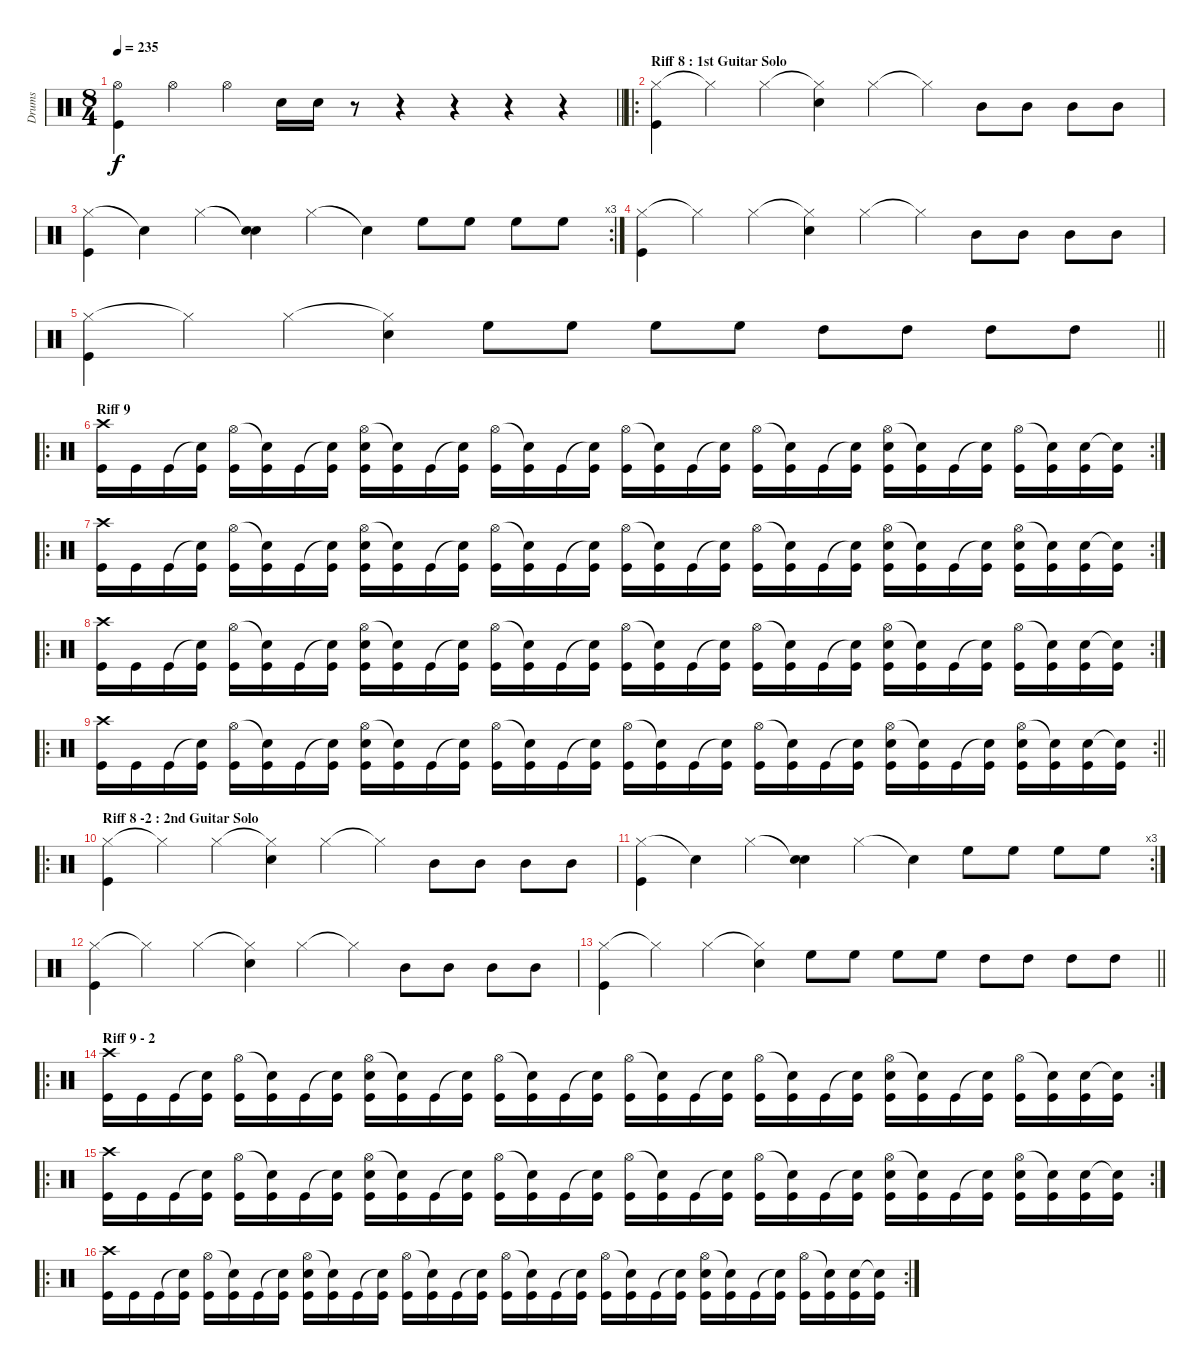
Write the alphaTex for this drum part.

\track ("Drums" "Drums") {instrument percussion}
\staff {score}
\articulation defaults
\ts (8 4)
\tempo 235
\clef neutral
\barLineRight lightlight
\ks c
("Hi-Hat (open)" "Kick (hit)").4{dy f} "Hi-Hat (open)".4 "Hi-Hat (open)".4 "Electric Snare (hit)".16 "Electric Snare (hit)".16 r.8 r.4 r.4 r.4 r.4 |
\ro
\section ("" "Riff 8 : 1st Guitar Solo")
("Hi-Hat (closed)" "Kick (hit)").4 "Hi-Hat (closed)"{t}.4 "Hi-Hat (closed)".4 ("Hi-Hat (closed)"{t} "Electric Snare (hit)").4 "Hi-Hat (closed)".4 "Hi-Hat (closed)"{t}.4 "Mid Tom (hit)".8 "Mid Tom (hit)".8 "Mid Tom (hit)".8 "Mid Tom (hit)".8 |
\rc 3
("Hi-Hat (closed)" "Kick (hit)").4 "Snare (hit)"{t}.4 "Hi-Hat (closed)".4 ("Snare (hit)"{t} "Electric Snare (hit)").4 "Hi-Hat (closed)".4 "Snare (hit)"{t}.4 "High Floor Tom (hit)".8 "High Floor Tom (hit)".8 "High Floor Tom (hit)".8 "High Floor Tom (hit)".8 |
("Hi-Hat (closed)" "Kick (hit)").4 "Hi-Hat (closed)"{t}.4 "Hi-Hat (closed)".4 ("Hi-Hat (closed)"{t} "Electric Snare (hit)").4 "Hi-Hat (closed)".4 "Hi-Hat (closed)"{t}.4 "Mid Tom (hit)".8 "Mid Tom (hit)".8 "Mid Tom (hit)".8 "Mid Tom (hit)".8 |
\barLineRight lightlight
("Hi-Hat (closed)" "Kick (hit)").4 "Hi-Hat (closed)"{t}.4 "Hi-Hat (closed)".4 ("Hi-Hat (closed)"{t} "Electric Snare (hit)").4 "High Floor Tom (hit)".8 "High Floor Tom (hit)".8 "High Floor Tom (hit)".8 "High Floor Tom (hit)".8 "High Tom (hit)".8 "High Tom (hit)".8 "High Tom (hit)".8 "High Tom (hit)".8 |
\ro
\rc 2
\section ("" "Riff 9 ")
("Crash high (hit)" "Kick (hit)").16 "Kick (hit)".16 "Kick (hit)".16 ("Snare (hit)"{t} "Kick (hit)").16 ("Hi-Hat (open)" "Kick (hit)").16 ("Snare (hit)"{t} "Kick (hit)").16 "Kick (hit)".16 ("Snare (hit)"{t} "Kick (hit)").16 ("Hi-Hat (open)" "Electric Snare (hit)" "Kick (hit)").16 ("Snare (hit)"{t} "Kick (hit)").16 "Kick (hit)".16 ("Snare (hit)"{t} "Kick (hit)").16 ("Hi-Hat (open)" "Kick (hit)").16 ("Snare (hit)"{t} "Kick (hit)").16 "Kick (hit)".16 ("Snare (hit)"{t} "Kick (hit)").16 ("Hi-Hat (open)" "Kick (hit)").16 ("Snare (hit)"{t} "Kick (hit)").16 "Kick (hit)".16 ("Snare (hit)"{t} "Kick (hit)").16 ("Hi-Hat (open)" "Kick (hit)").16 ("Snare (hit)"{t} "Kick (hit)").16 "Kick (hit)".16 ("Snare (hit)"{t} "Kick (hit)").16 ("Hi-Hat (open)" "Electric Snare (hit)" "Kick (hit)").16 ("Snare (hit)"{t} "Kick (hit)").16 "Kick (hit)".16 ("Snare (hit)"{t} "Kick (hit)").16 ("Hi-Hat (open)" "Kick (hit)").16 ("Snare (hit)"{t} "Kick (hit)").16 ("Electric Snare (hit)" "Kick (hit)").16 ("Snare (hit)"{t} "Kick (hit)").16 |
\ro
\rc 2
("Crash high (hit)" "Kick (hit)").16 "Kick (hit)".16 "Kick (hit)".16 ("Snare (hit)"{t} "Kick (hit)").16 ("Hi-Hat (open)" "Kick (hit)").16 ("Snare (hit)"{t} "Kick (hit)").16 "Kick (hit)".16 ("Snare (hit)"{t} "Kick (hit)").16 ("Hi-Hat (open)" "Electric Snare (hit)" "Kick (hit)").16 ("Snare (hit)"{t} "Kick (hit)").16 "Kick (hit)".16 ("Snare (hit)"{t} "Kick (hit)").16 ("Hi-Hat (open)" "Kick (hit)").16 ("Snare (hit)"{t} "Kick (hit)").16 "Kick (hit)".16 ("Snare (hit)"{t} "Kick (hit)").16 ("Hi-Hat (open)" "Kick (hit)").16 ("Snare (hit)"{t} "Kick (hit)").16 "Kick (hit)".16 ("Snare (hit)"{t} "Kick (hit)").16 ("Hi-Hat (open)" "Kick (hit)").16 ("Snare (hit)"{t} "Kick (hit)").16 "Kick (hit)".16 ("Snare (hit)"{t} "Kick (hit)").16 ("Hi-Hat (open)" "Electric Snare (hit)" "Kick (hit)").16 ("Snare (hit)"{t} "Kick (hit)").16 "Kick (hit)".16 ("Snare (hit)"{t} "Kick (hit)").16 ("Hi-Hat (open)" "Electric Snare (hit)" "Kick (hit)").16 ("Snare (hit)"{t} "Kick (hit)").16 ("Electric Snare (hit)" "Kick (hit)").16 ("Snare (hit)"{t} "Kick (hit)").16 |
\ro
\rc 2
("Crash high (hit)" "Kick (hit)").16 "Kick (hit)".16 "Kick (hit)".16 ("Snare (hit)"{t} "Kick (hit)").16 ("Hi-Hat (open)" "Kick (hit)").16 ("Snare (hit)"{t} "Kick (hit)").16 "Kick (hit)".16 ("Snare (hit)"{t} "Kick (hit)").16 ("Hi-Hat (open)" "Electric Snare (hit)" "Kick (hit)").16 ("Snare (hit)"{t} "Kick (hit)").16 "Kick (hit)".16 ("Snare (hit)"{t} "Kick (hit)").16 ("Hi-Hat (open)" "Kick (hit)").16 ("Snare (hit)"{t} "Kick (hit)").16 "Kick (hit)".16 ("Snare (hit)"{t} "Kick (hit)").16 ("Hi-Hat (open)" "Kick (hit)").16 ("Snare (hit)"{t} "Kick (hit)").16 "Kick (hit)".16 ("Snare (hit)"{t} "Kick (hit)").16 ("Hi-Hat (open)" "Kick (hit)").16 ("Snare (hit)"{t} "Kick (hit)").16 "Kick (hit)".16 ("Snare (hit)"{t} "Kick (hit)").16 ("Hi-Hat (open)" "Electric Snare (hit)" "Kick (hit)").16 ("Snare (hit)"{t} "Kick (hit)").16 "Kick (hit)".16 ("Snare (hit)"{t} "Kick (hit)").16 ("Hi-Hat (open)" "Kick (hit)").16 ("Snare (hit)"{t} "Kick (hit)").16 ("Electric Snare (hit)" "Kick (hit)").16 ("Snare (hit)"{t} "Kick (hit)").16 |
\ro
\rc 2
\barLineRight lightlight
("Crash high (hit)" "Kick (hit)").16 "Kick (hit)".16 "Kick (hit)".16 ("Snare (hit)"{t} "Kick (hit)").16 ("Hi-Hat (open)" "Kick (hit)").16 ("Snare (hit)"{t} "Kick (hit)").16 "Kick (hit)".16 ("Snare (hit)"{t} "Kick (hit)").16 ("Hi-Hat (open)" "Electric Snare (hit)" "Kick (hit)").16 ("Snare (hit)"{t} "Kick (hit)").16 "Kick (hit)".16 ("Snare (hit)"{t} "Kick (hit)").16 ("Hi-Hat (open)" "Kick (hit)").16 ("Snare (hit)"{t} "Kick (hit)").16 "Kick (hit)".16 ("Snare (hit)"{t} "Kick (hit)").16 ("Hi-Hat (open)" "Kick (hit)").16 ("Snare (hit)"{t} "Kick (hit)").16 "Kick (hit)".16 ("Snare (hit)"{t} "Kick (hit)").16 ("Hi-Hat (open)" "Kick (hit)").16 ("Snare (hit)"{t} "Kick (hit)").16 "Kick (hit)".16 ("Snare (hit)"{t} "Kick (hit)").16 ("Hi-Hat (open)" "Electric Snare (hit)" "Kick (hit)").16 ("Snare (hit)"{t} "Kick (hit)").16 "Kick (hit)".16 ("Snare (hit)"{t} "Kick (hit)").16 ("Hi-Hat (open)" "Electric Snare (hit)" "Kick (hit)").16 ("Snare (hit)"{t} "Kick (hit)").16 ("Electric Snare (hit)" "Kick (hit)").16 ("Snare (hit)"{t} "Kick (hit)").16 |
\ro
\section ("" "Riff 8 -2 : 2nd Guitar Solo")
("Hi-Hat (closed)" "Kick (hit)").4 "Hi-Hat (closed)"{t}.4 "Hi-Hat (closed)".4 ("Hi-Hat (closed)"{t} "Electric Snare (hit)").4 "Hi-Hat (closed)".4 "Hi-Hat (closed)"{t}.4 "Mid Tom (hit)".8 "Mid Tom (hit)".8 "Mid Tom (hit)".8 "Mid Tom (hit)".8 |
\rc 3
("Hi-Hat (closed)" "Kick (hit)").4 "Snare (hit)"{t}.4 "Hi-Hat (closed)".4 ("Snare (hit)"{t} "Electric Snare (hit)").4 "Hi-Hat (closed)".4 "Snare (hit)"{t}.4 "High Floor Tom (hit)".8 "High Floor Tom (hit)".8 "High Floor Tom (hit)".8 "High Floor Tom (hit)".8 |
("Hi-Hat (closed)" "Kick (hit)").4 "Hi-Hat (closed)"{t}.4 "Hi-Hat (closed)".4 ("Hi-Hat (closed)"{t} "Electric Snare (hit)").4 "Hi-Hat (closed)".4 "Hi-Hat (closed)"{t}.4 "Mid Tom (hit)".8 "Mid Tom (hit)".8 "Mid Tom (hit)".8 "Mid Tom (hit)".8 |
\barLineRight lightlight
("Hi-Hat (closed)" "Kick (hit)").4 "Hi-Hat (closed)"{t}.4 "Hi-Hat (closed)".4 ("Hi-Hat (closed)"{t} "Electric Snare (hit)").4 "High Floor Tom (hit)".8 "High Floor Tom (hit)".8 "High Floor Tom (hit)".8 "High Floor Tom (hit)".8 "High Tom (hit)".8 "High Tom (hit)".8 "High Tom (hit)".8 "High Tom (hit)".8 |
\ro
\rc 2
\section ("" "Riff 9 - 2")
("Crash high (hit)" "Kick (hit)").16 "Kick (hit)".16 "Kick (hit)".16 ("Snare (hit)"{t} "Kick (hit)").16 ("Hi-Hat (open)" "Kick (hit)").16 ("Snare (hit)"{t} "Kick (hit)").16 "Kick (hit)".16 ("Snare (hit)"{t} "Kick (hit)").16 ("Hi-Hat (open)" "Electric Snare (hit)" "Kick (hit)").16 ("Snare (hit)"{t} "Kick (hit)").16 "Kick (hit)".16 ("Snare (hit)"{t} "Kick (hit)").16 ("Hi-Hat (open)" "Kick (hit)").16 ("Snare (hit)"{t} "Kick (hit)").16 "Kick (hit)".16 ("Snare (hit)"{t} "Kick (hit)").16 ("Hi-Hat (open)" "Kick (hit)").16 ("Snare (hit)"{t} "Kick (hit)").16 "Kick (hit)".16 ("Snare (hit)"{t} "Kick (hit)").16 ("Hi-Hat (open)" "Kick (hit)").16 ("Snare (hit)"{t} "Kick (hit)").16 "Kick (hit)".16 ("Snare (hit)"{t} "Kick (hit)").16 ("Hi-Hat (open)" "Electric Snare (hit)" "Kick (hit)").16 ("Snare (hit)"{t} "Kick (hit)").16 "Kick (hit)".16 ("Snare (hit)"{t} "Kick (hit)").16 ("Hi-Hat (open)" "Kick (hit)").16 ("Snare (hit)"{t} "Kick (hit)").16 ("Electric Snare (hit)" "Kick (hit)").16 ("Snare (hit)"{t} "Kick (hit)").16 |
\ro
\rc 2
("Crash high (hit)" "Kick (hit)").16 "Kick (hit)".16 "Kick (hit)".16 ("Snare (hit)"{t} "Kick (hit)").16 ("Hi-Hat (open)" "Kick (hit)").16 ("Snare (hit)"{t} "Kick (hit)").16 "Kick (hit)".16 ("Snare (hit)"{t} "Kick (hit)").16 ("Hi-Hat (open)" "Electric Snare (hit)" "Kick (hit)").16 ("Snare (hit)"{t} "Kick (hit)").16 "Kick (hit)".16 ("Snare (hit)"{t} "Kick (hit)").16 ("Hi-Hat (open)" "Kick (hit)").16 ("Snare (hit)"{t} "Kick (hit)").16 "Kick (hit)".16 ("Snare (hit)"{t} "Kick (hit)").16 ("Hi-Hat (open)" "Kick (hit)").16 ("Snare (hit)"{t} "Kick (hit)").16 "Kick (hit)".16 ("Snare (hit)"{t} "Kick (hit)").16 ("Hi-Hat (open)" "Kick (hit)").16 ("Snare (hit)"{t} "Kick (hit)").16 "Kick (hit)".16 ("Snare (hit)"{t} "Kick (hit)").16 ("Hi-Hat (open)" "Electric Snare (hit)" "Kick (hit)").16 ("Snare (hit)"{t} "Kick (hit)").16 "Kick (hit)".16 ("Snare (hit)"{t} "Kick (hit)").16 ("Hi-Hat (open)" "Electric Snare (hit)" "Kick (hit)").16 ("Snare (hit)"{t} "Kick (hit)").16 ("Electric Snare (hit)" "Kick (hit)").16 ("Snare (hit)"{t} "Kick (hit)").16 |
\ro
\rc 2
("Crash high (hit)" "Kick (hit)").16 "Kick (hit)".16 "Kick (hit)".16 ("Snare (hit)"{t} "Kick (hit)").16 ("Hi-Hat (open)" "Kick (hit)").16 ("Snare (hit)"{t} "Kick (hit)").16 "Kick (hit)".16 ("Snare (hit)"{t} "Kick (hit)").16 ("Hi-Hat (open)" "Electric Snare (hit)" "Kick (hit)").16 ("Snare (hit)"{t} "Kick (hit)").16 "Kick (hit)".16 ("Snare (hit)"{t} "Kick (hit)").16 ("Hi-Hat (open)" "Kick (hit)").16 ("Snare (hit)"{t} "Kick (hit)").16 "Kick (hit)".16 ("Snare (hit)"{t} "Kick (hit)").16 ("Hi-Hat (open)" "Kick (hit)").16 ("Snare (hit)"{t} "Kick (hit)").16 "Kick (hit)".16 ("Snare (hit)"{t} "Kick (hit)").16 ("Hi-Hat (open)" "Kick (hit)").16 ("Snare (hit)"{t} "Kick (hit)").16 "Kick (hit)".16 ("Snare (hit)"{t} "Kick (hit)").16 ("Hi-Hat (open)" "Electric Snare (hit)" "Kick (hit)").16 ("Snare (hit)"{t} "Kick (hit)").16 "Kick (hit)".16 ("Snare (hit)"{t} "Kick (hit)").16 ("Hi-Hat (open)" "Kick (hit)").16 ("Snare (hit)"{t} "Kick (hit)").16 ("Electric Snare (hit)" "Kick (hit)").16 ("Snare (hit)"{t} "Kick (hit)").16
